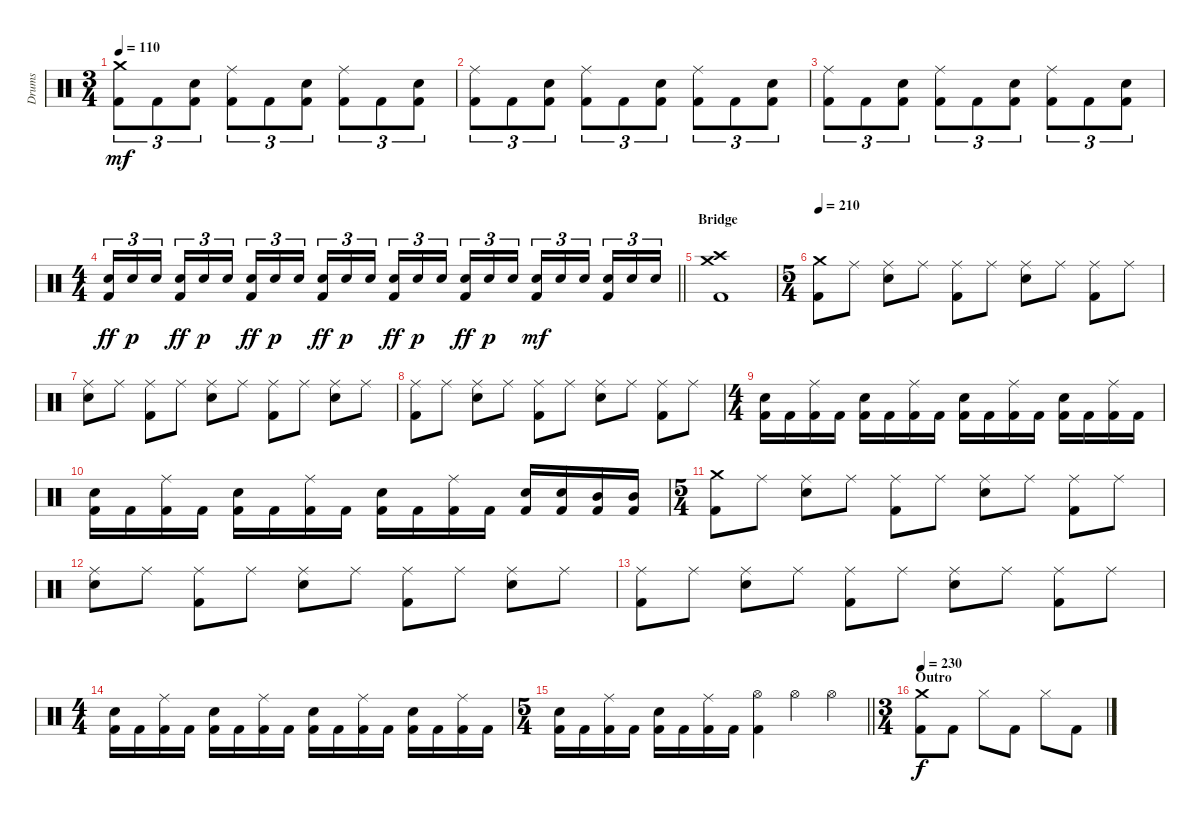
\track ("Drums" "Drums") {instrument percussion}
\staff {score}
\articulation defaults
\ts (3 4)
\tempo 110
\clef neutral
\ks c
("Kick (hit) 2" "Crash medium (hit)").8{tu (3 2) dy mf} "Kick (hit) 2".8{tu (3 2)} ("Kick (hit) 2" "Snare (hit) 2").8{tu (3 2)} ("Kick (hit) 2" "Ride (middle)").8{tu (3 2)} "Kick (hit) 2".8{tu (3 2)} ("Kick (hit) 2" "Snare (hit) 2").8{tu (3 2)} ("Kick (hit) 2" "Ride (middle)").8{tu (3 2)} "Kick (hit) 2".8{tu (3 2)} ("Kick (hit) 2" "Snare (hit) 2").8{tu (3 2)} |
("Kick (hit) 2" "Ride (middle)").8{tu (3 2)} "Kick (hit) 2".8{tu (3 2)} ("Kick (hit) 2" "Snare (hit) 2").8{tu (3 2)} ("Kick (hit) 2" "Ride (middle)").8{tu (3 2)} "Kick (hit) 2".8{tu (3 2)} ("Kick (hit) 2" "Snare (hit) 2").8{tu (3 2)} ("Kick (hit) 2" "Ride (middle)").8{tu (3 2)} "Kick (hit) 2".8{tu (3 2)} ("Kick (hit) 2" "Snare (hit) 2").8{tu (3 2)} |
("Kick (hit) 2" "Ride (middle)").8{tu (3 2)} "Kick (hit) 2".8{tu (3 2)} ("Kick (hit) 2" "Snare (hit) 2").8{tu (3 2)} ("Kick (hit) 2" "Ride (middle)").8{tu (3 2)} "Kick (hit) 2".8{tu (3 2)} ("Kick (hit) 2" "Snare (hit) 2").8{tu (3 2)} ("Kick (hit) 2" "Ride (middle)").8{tu (3 2)} "Kick (hit) 2".8{tu (3 2)} ("Kick (hit) 2" "Snare (hit) 2").8{tu (3 2)} |
\ts (4 4)
\barLineRight lightlight
("Kick (hit) 2" "Snare (hit) 2").16{tu (3 2) dy ff} "Snare (hit) 2".16{tu (3 2) dy p} "Snare (hit) 2".16{tu (3 2) beam splitsecondary} ("Kick (hit) 2" "Snare (hit) 2").16{tu (3 2) dy ff} "Snare (hit) 2".16{tu (3 2) dy p} "Snare (hit) 2".16{tu (3 2)} ("Kick (hit) 2" "Snare (hit) 2").16{tu (3 2) dy ff} "Snare (hit) 2".16{tu (3 2) dy p} "Snare (hit) 2".16{tu (3 2) beam splitsecondary} ("Kick (hit) 2" "Snare (hit) 2").16{tu (3 2) dy ff} "Snare (hit) 2".16{tu (3 2) dy p} "Snare (hit) 2".16{tu (3 2)} ("Kick (hit) 2" "Snare (hit) 2").16{tu (3 2) dy ff} "Snare (hit) 2".16{tu (3 2) dy p} "Snare (hit) 2".16{tu (3 2) beam splitsecondary} ("Kick (hit) 2" "Snare (hit) 2").16{tu (3 2) dy ff} "Snare (hit) 2".16{tu (3 2) dy p} "Snare (hit) 2".16{tu (3 2)} ("Kick (hit) 2" "Snare (hit) 2").16{tu (3 2) dy mf} "Snare (hit) 2".16{tu (3 2)} "Snare (hit) 2".16{tu (3 2) beam splitsecondary} ("Kick (hit) 2" "Snare (hit) 2").16{tu (3 2)} "Snare (hit) 2".16{tu (3 2)} "Snare (hit) 2".16{tu (3 2)} |
\section ("" "Bridge")
("Kick (hit) 2" "Crash high (hit)" "Crash medium (hit)").1 |
\ts (5 4)
\tempo 210
("Kick (hit) 2" "Crash medium (hit)").8 "Ride (middle)".8 ("Snare (hit) 2" "Ride (middle)").8 "Ride (middle)".8 ("Kick (hit) 2" "Ride (middle)").8 "Ride (middle)".8 ("Snare (hit) 2" "Ride (middle)").8 "Ride (middle)".8 ("Kick (hit) 2" "Ride (middle)").8 "Ride (middle)".8 |
("Snare (hit) 2" "Ride (middle)").8 "Ride (middle)".8 ("Kick (hit) 2" "Ride (middle)").8 "Ride (middle)".8 ("Snare (hit) 2" "Ride (middle)").8 "Ride (middle)".8 ("Kick (hit) 2" "Ride (middle)").8 "Ride (middle)".8 ("Snare (hit) 2" "Ride (middle)").8 "Ride (middle)".8 |
("Kick (hit) 2" "Ride (middle)").8 "Ride (middle)".8 ("Snare (hit) 2" "Ride (middle)").8 "Ride (middle)".8 ("Kick (hit) 2" "Ride (middle)").8 "Ride (middle)".8 ("Snare (hit) 2" "Ride (middle)").8 "Ride (middle)".8 ("Kick (hit) 2" "Ride (middle)").8 "Ride (middle)".8 |
\ts (4 4)
("Kick (hit) 2" "Snare (hit) 2").16 "Kick (hit) 2".16 ("Kick (hit) 2" "Ride (middle)").16 "Kick (hit) 2".16 ("Kick (hit) 2" "Snare (hit) 2").16 "Kick (hit) 2".16 ("Kick (hit) 2" "Ride (middle)").16 "Kick (hit) 2".16 ("Kick (hit) 2" "Snare (hit) 2").16 "Kick (hit) 2".16 ("Kick (hit) 2" "Ride (middle)").16 "Kick (hit) 2".16 ("Kick (hit) 2" "Snare (hit) 2").16 "Kick (hit) 2".16 ("Kick (hit) 2" "Ride (middle)").16 "Kick (hit) 2".16 |
("Kick (hit) 2" "Snare (hit) 2").16 "Kick (hit) 2".16 ("Kick (hit) 2" "Ride (middle)").16 "Kick (hit) 2".16 ("Kick (hit) 2" "Snare (hit) 2").16 "Kick (hit) 2".16 ("Kick (hit) 2" "Ride (middle)").16 "Kick (hit) 2".16 ("Kick (hit) 2" "Snare (hit) 2").16 "Kick (hit) 2".16 ("Kick (hit) 2" "Ride (middle)").16 "Kick (hit) 2".16 ("Kick (hit) 2" "Snare (hit) 2").16 ("Kick (hit) 2" "Snare (hit) 2").16 ("Kick (hit) 2" "Mid Tom (hit)").16 ("Kick (hit) 2" "Mid Tom (hit)").16 |
\ts (5 4)
("Kick (hit) 2" "Crash medium (hit)").8 "Ride (middle)".8 ("Snare (hit) 2" "Ride (middle)").8 "Ride (middle)".8 ("Kick (hit) 2" "Ride (middle)").8 "Ride (middle)".8 ("Snare (hit) 2" "Ride (middle)").8 "Ride (middle)".8 ("Kick (hit) 2" "Ride (middle)").8 "Ride (middle)".8 |
("Snare (hit) 2" "Ride (middle)").8 "Ride (middle)".8 ("Kick (hit) 2" "Ride (middle)").8 "Ride (middle)".8 ("Snare (hit) 2" "Ride (middle)").8 "Ride (middle)".8 ("Kick (hit) 2" "Ride (middle)").8 "Ride (middle)".8 ("Snare (hit) 2" "Ride (middle)").8 "Ride (middle)".8 |
("Kick (hit) 2" "Ride (middle)").8 "Ride (middle)".8 ("Snare (hit) 2" "Ride (middle)").8 "Ride (middle)".8 ("Kick (hit) 2" "Ride (middle)").8 "Ride (middle)".8 ("Snare (hit) 2" "Ride (middle)").8 "Ride (middle)".8 ("Kick (hit) 2" "Ride (middle)").8 "Ride (middle)".8 |
\ts (4 4)
("Kick (hit) 2" "Snare (hit) 2").16 "Kick (hit) 2".16 ("Kick (hit) 2" "Ride (middle)").16 "Kick (hit) 2".16 ("Kick (hit) 2" "Snare (hit) 2").16 "Kick (hit) 2".16 ("Kick (hit) 2" "Ride (middle)").16 "Kick (hit) 2".16 ("Kick (hit) 2" "Snare (hit) 2").16 "Kick (hit) 2".16 ("Kick (hit) 2" "Ride (middle)").16 "Kick (hit) 2".16 ("Kick (hit) 2" "Snare (hit) 2").16 "Kick (hit) 2".16 ("Kick (hit) 2" "Ride (middle)").16 "Kick (hit) 2".16 |
\ts (5 4)
\barLineRight lightlight
("Kick (hit) 2" "Snare (hit) 2").16 "Kick (hit) 2".16 ("Kick (hit) 2" "Ride (middle)").16 "Kick (hit) 2".16 ("Kick (hit) 2" "Snare (hit) 2").16 "Kick (hit) 2".16 ("Kick (hit) 2" "Ride (middle)").16 "Kick (hit) 2".16 ("Kick (hit) 2" "Hi-Hat (open)").4 "Hi-Hat (open)".4 "Hi-Hat (open)".4 |
\ts (3 4)
\section ("" "Outro")
\tempo 230
("Kick (hit) 2" "Crash medium (hit)").8{dy f} "Kick (hit) 2".8 "Hi-Hat (closed)".8 "Kick (hit) 2".8 "Hi-Hat (closed)".8 "Kick (hit) 2".8
